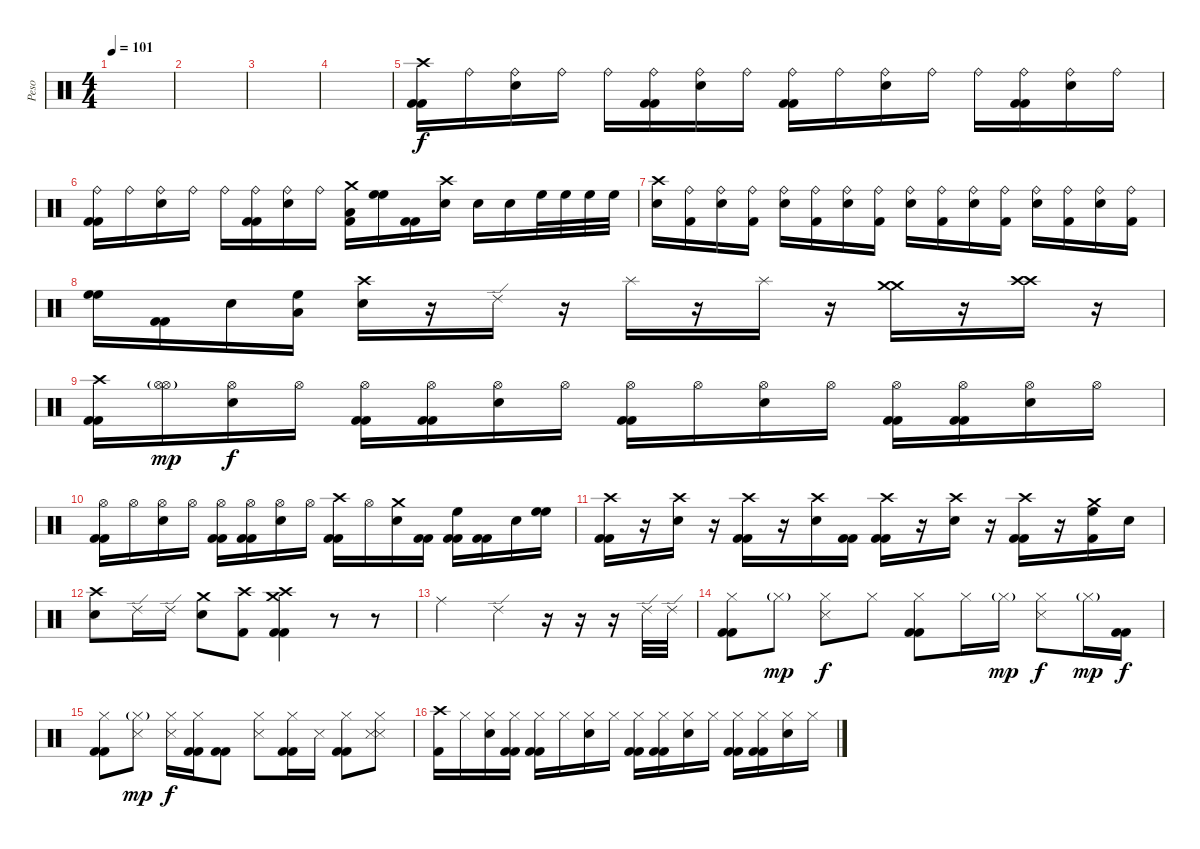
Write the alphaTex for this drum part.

\track ("Peso" "Peso") {instrument percussion}
\staff {score}
\articulation defaults
\ts (4 4)
\tempo 101
\clef neutral
\ks c
|
|
|
|
("Crash high (hit)" "Kick (hit) 2" "Kick (hit) 2").16 "Ride (bell)".16 ("Ride (bell)" "Snare (hit) 2").16 "Ride (bell)".16 "Ride (bell)".16 ("Ride (bell)" "Kick (hit) 2" "Kick (hit) 2").16 ("Ride (bell)" "Snare (hit) 2").16 "Ride (bell)".16 ("Ride (bell)" "Kick (hit) 2" "Kick (hit) 2").16 "Ride (bell)".16 ("Ride (bell)" "Snare (hit) 2").16 "Ride (bell)".16 "Ride (bell)".16 ("Ride (bell)" "Kick (hit) 2" "Kick (hit) 2").16 ("Ride (bell)" "Snare (hit) 2").16 "Ride (bell)".16 |
("Ride (bell)" "Kick (hit) 2" "Kick (hit) 2").16 "Ride (bell)".16 ("Ride (bell)" "Snare (hit) 2").16 "Ride (bell)".16 "Ride (bell)".16 ("Ride (bell)" "Kick (hit) 2" "Kick (hit) 2").16 ("Ride (bell)" "Snare (hit) 2").16 "Ride (bell)".16 ("Crash medium (hit)" "Low Floor Tom (hit)" "Kick (hit) 2").16 ("High Floor Tom (hit)" "High Floor Tom (hit)").16 ("Kick (hit) 2" "Kick (hit) 2").16 ("Crash high (hit)" "Snare (hit) 2").16 "Snare (hit) 2".16 "Snare (hit) 2".16 "High Floor Tom (hit)".32 "High Floor Tom (hit)".32 "High Floor Tom (hit)".32 "High Floor Tom (hit)".32 |
("Crash high (hit)" "Snare (hit) 2").16 ("Ride (bell)" "Kick (hit) 2").16 ("Ride (bell)" "Snare (hit) 2").16 ("Ride (bell)" "Kick (hit) 2").16 ("Ride (bell)" "Snare (hit) 2").16 ("Ride (bell)" "Kick (hit) 2").16 ("Ride (bell)" "Snare (hit) 2").16 ("Ride (bell)" "Kick (hit) 2").16 ("Ride (bell)" "Snare (hit) 2").16 ("Ride (bell)" "Kick (hit) 2").16 ("Ride (bell)" "Snare (hit) 2").16 ("Ride (bell)" "Kick (hit) 2").16 ("Ride (bell)" "Snare (hit) 2").16 ("Ride (bell)" "Kick (hit) 2").16 ("Ride (bell)" "Snare (hit) 2").16 ("Ride (bell)" "Kick (hit) 2").16 |
("High Floor Tom (hit)" "High Floor Tom (hit)").16 ("Kick (hit) 2" "Kick (hit) 2").16 "Snare (hit) 2".16 ("High Floor Tom (hit)" "Low Floor Tom (hit)").16 ("Crash high (hit)" "Snare (hit) 2").16 r.16 "Ride (edge) 2".16 r.16 "Splash (hit)".16 r.16 "Splash (hit)".16 r.16 ("Crash medium (hit)" "Crash medium (hit)").16 r.16 ("Crash high (hit)" "Crash high (hit)").16 r.16 |
("Crash high (hit)" "Kick (hit) 2" "Kick (hit) 2").16 ("Hi-Hat (open)" "Hi-Hat (open)"{g}).16{dy mp} ("Hi-Hat (open)" "Snare (hit) 2").16{dy f} "Hi-Hat (open)".16 ("Hi-Hat (open)" "Kick (hit) 2" "Kick (hit) 2").16 ("Hi-Hat (open)" "Kick (hit) 2" "Kick (hit) 2").16 ("Hi-Hat (open)" "Snare (hit) 2").16 "Hi-Hat (open)".16 ("Hi-Hat (open)" "Kick (hit) 2" "Kick (hit) 2").16 "Hi-Hat (open)".16 ("Hi-Hat (open)" "Snare (hit) 2").16 "Hi-Hat (open)".16 ("Hi-Hat (open)" "Kick (hit) 2" "Kick (hit) 2").16 ("Hi-Hat (open)" "Kick (hit) 2" "Kick (hit) 2").16 ("Hi-Hat (open)" "Snare (hit) 2").16 "Hi-Hat (open)".16 |
("Hi-Hat (open)" "Kick (hit) 2" "Kick (hit) 2").16 "Hi-Hat (open)".16 ("Hi-Hat (open)" "Snare (hit) 2").16 "Hi-Hat (open)".16 ("Hi-Hat (open)" "Kick (hit) 2" "Kick (hit) 2").16 ("Hi-Hat (open)" "Kick (hit) 2" "Kick (hit) 2").16 ("Hi-Hat (open)" "Snare (hit) 2").16 "Hi-Hat (open)".16 ("Crash high (hit)" "Kick (hit) 2" "Kick (hit) 2").16 "Hi-Hat (open)".16 ("Crash medium (hit)" "Snare (hit) 2").16 ("Kick (hit) 2" "Kick (hit) 2").16 ("High Floor Tom (hit)" "Kick (hit) 2" "Kick (hit) 2").16 ("Kick (hit) 2" "Kick (hit) 2").16 "Snare (hit) 2".16 ("High Floor Tom (hit)" "High Floor Tom (hit)").16 |
("Crash high (hit)" "Kick (hit) 2" "Kick (hit) 2").16 r.16 ("Crash high (hit)" "Snare (hit) 2").16 r.16 ("Crash high (hit)" "Kick (hit) 2" "Kick (hit) 2").16 r.16 ("Crash high (hit)" "Snare (hit) 2").16 ("Kick (hit) 2" "Kick (hit) 2").16 ("Crash high (hit)" "Kick (hit) 2" "Kick (hit) 2").16 r.16 ("Crash high (hit)" "Snare (hit) 2").16 r.16 ("Crash high (hit)" "Kick (hit) 2" "Kick (hit) 2").16 r.16 ("Crash medium (hit)" "High Floor Tom (hit)" "Kick (hit) 2").16 "Snare (hit) 2".16 |
("Crash high (hit)" "Snare (hit) 2").8 "Ride (edge) 2".16 "Ride (edge) 2".16 ("Crash medium (hit)" "Snare (hit) 2").8 ("Crash high (hit)" "Kick (hit) 2").8 ("Crash high (hit)" "Crash medium (hit)" "Kick (hit) 2" "Kick (hit) 2").4 r.8 r.8 |
"Ride (middle)".2 "Ride (edge) 2".4 r.16 r.16 r.16 "Ride (edge) 2".32 "Ride (edge) 2".32 |
("Hi-Hat (closed)" "Kick (hit) 2" "Kick (hit) 2").8 "Hi-Hat (closed)"{g}.8{dy mp} ("Hi-Hat (closed)" "Snare (side stick) 3").8{dy f} "Hi-Hat (closed)".8 ("Hi-Hat (closed)" "Kick (hit) 2" "Kick (hit) 2").8 "Hi-Hat (closed)".16 "Hi-Hat (closed)"{g}.16{dy mp} ("Hi-Hat (closed)" "Snare (side stick) 3").8{dy f} "Hi-Hat (closed)"{g}.16{dy mp} ("Kick (hit) 2" "Kick (hit) 2").16{dy f} |
("Hi-Hat (closed)" "Kick (hit) 2" "Kick (hit) 2").8 ("Hi-Hat (closed)"{g} "Snare (side stick) 3").8{dy mp} ("Hi-Hat (closed)" "Snare (side stick) 3").16{dy f} ("Hi-Hat (closed)" "Kick (hit) 2" "Kick (hit) 2").16 ("Kick (hit) 2" "Kick (hit) 2").8 ("Hi-Hat (closed)" "Snare (side stick) 3").8 ("Hi-Hat (closed)" "Kick (hit) 2" "Kick (hit) 2").16 "Snare (side stick) 3".16 ("Hi-Hat (closed)" "Kick (hit) 2" "Kick (hit) 2").8 ("Hi-Hat (closed)" "Snare (side stick) 3" "Snare (side stick) 3").8 |
("Crash high (hit)" "Kick (hit) 2").16 "Hi-Hat (closed)".16 ("Hi-Hat (closed)" "Snare (hit) 2").16 ("Hi-Hat (closed)" "Kick (hit) 2" "Kick (hit) 2").16 ("Hi-Hat (closed)" "Kick (hit) 2" "Kick (hit) 2").16 "Hi-Hat (closed)".16 ("Hi-Hat (closed)" "Snare (hit) 2").16 "Hi-Hat (closed)".16 ("Hi-Hat (closed)" "Kick (hit) 2" "Kick (hit) 2").16 ("Hi-Hat (closed)" "Kick (hit) 2" "Kick (hit) 2").16 ("Hi-Hat (closed)" "Snare (hit) 2").16 "Hi-Hat (closed)".16 ("Hi-Hat (closed)" "Kick (hit) 2" "Kick (hit) 2").16 ("Hi-Hat (closed)" "Kick (hit) 2" "Kick (hit) 2").16 ("Hi-Hat (closed)" "Snare (hit) 2").16 "Hi-Hat (closed)".16
